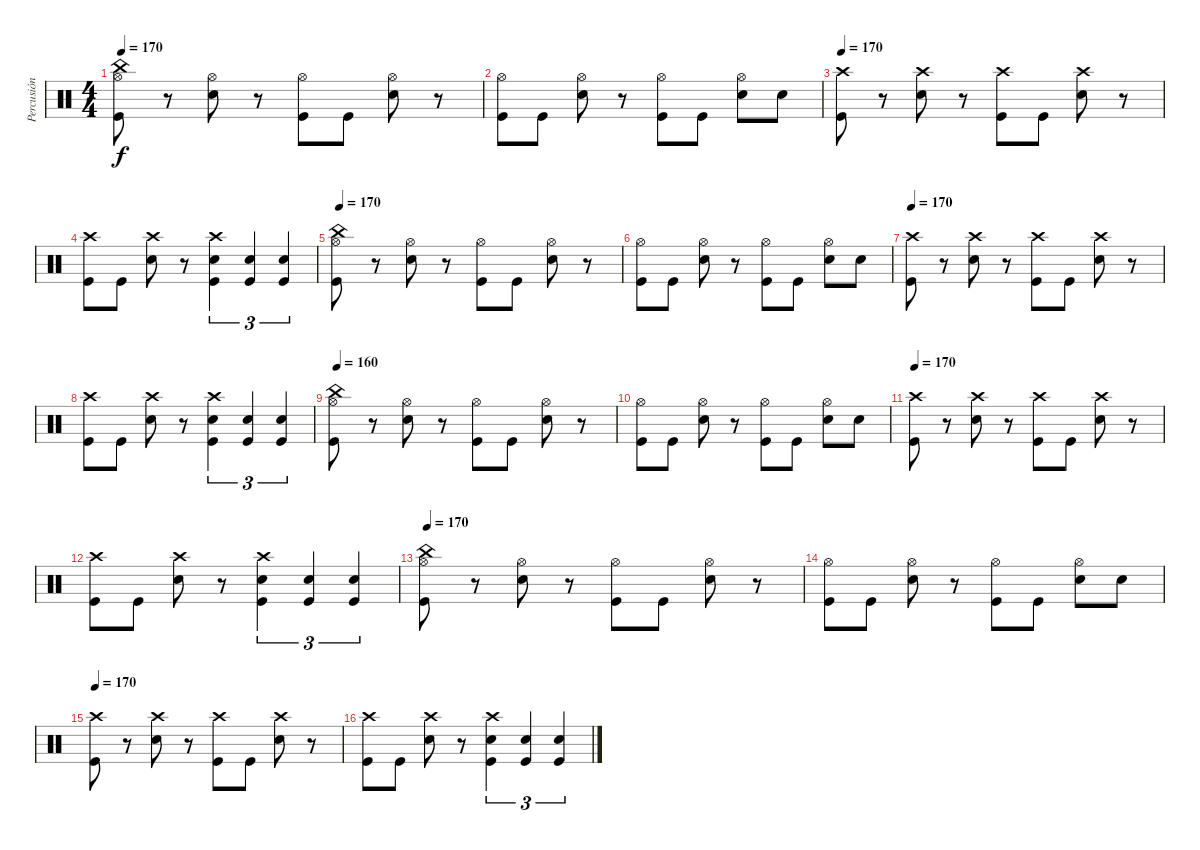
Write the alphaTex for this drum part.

\track ("Percusión  Gabriela" "Percusión ") {instrument percussion}
\staff {score}
\articulation defaults
\ts (4 4)
\tempo 170
\clef neutral
\ks c
("Hi-Hat (open)" "China (hit)" "Kick (hit)").8{dy f} r.8 ("Hi-Hat (open)" "Snare (hit) 2").8 r.8 ("Hi-Hat (open)" "Kick (hit)").8 "Kick (hit)".8 ("Snare (hit) 2" "Hi-Hat (open)").8 r.8 |
("Hi-Hat (open)" "Kick (hit)").8 "Kick (hit)".8 ("Hi-Hat (open)" "Snare (hit) 2").8 r.8 ("Hi-Hat (open)" "Kick (hit)").8 "Kick (hit)".8 ("Hi-Hat (open)" "Snare (hit) 2").8 "Snare (hit) 2".8 |
\tempo 170
("Crash high (hit)" "Kick (hit)").8 r.8 ("Crash high (hit)" "Snare (hit) 2").8 r.8 ("Crash high (hit)" "Kick (hit)").8 "Kick (hit)".8 ("Snare (hit) 2" "Crash high (hit)").8 r.8 |
("Crash high (hit)" "Kick (hit)").8 "Kick (hit)".8 ("Crash high (hit)" "Snare (hit) 2").8 r.8 ("Crash high (hit)" "Snare (hit) 2" "Kick (hit)").4{tu (3 2)} ("Snare (hit) 2" "Kick (hit)").4{tu (3 2)} ("Kick (hit)" "Snare (hit) 2").4{tu (3 2)} |
\tempo 170
("Hi-Hat (open)" "China (hit)" "Kick (hit)").8 r.8 ("Hi-Hat (open)" "Snare (hit) 2").8 r.8 ("Hi-Hat (open)" "Kick (hit)").8 "Kick (hit)".8 ("Snare (hit) 2" "Hi-Hat (open)").8 r.8 |
("Hi-Hat (open)" "Kick (hit)").8 "Kick (hit)".8 ("Hi-Hat (open)" "Snare (hit) 2").8 r.8 ("Hi-Hat (open)" "Kick (hit)").8 "Kick (hit)".8 ("Hi-Hat (open)" "Snare (hit) 2").8 "Snare (hit) 2".8 |
\tempo 170
("Crash high (hit)" "Kick (hit)").8 r.8 ("Crash high (hit)" "Snare (hit) 2").8 r.8 ("Crash high (hit)" "Kick (hit)").8 "Kick (hit)".8 ("Snare (hit) 2" "Crash high (hit)").8 r.8 |
("Crash high (hit)" "Kick (hit)").8 "Kick (hit)".8 ("Crash high (hit)" "Snare (hit) 2").8 r.8 ("Crash high (hit)" "Snare (hit) 2" "Kick (hit)").4{tu (3 2)} ("Snare (hit) 2" "Kick (hit)").4{tu (3 2)} ("Kick (hit)" "Snare (hit) 2").4{tu (3 2)} |
\tempo 160
("Hi-Hat (open)" "China (hit)" "Kick (hit)").8 r.8 ("Hi-Hat (open)" "Snare (hit) 2").8 r.8 ("Hi-Hat (open)" "Kick (hit)").8 "Kick (hit)".8 ("Snare (hit) 2" "Hi-Hat (open)").8 r.8 |
("Hi-Hat (open)" "Kick (hit)").8 "Kick (hit)".8 ("Hi-Hat (open)" "Snare (hit) 2").8 r.8 ("Hi-Hat (open)" "Kick (hit)").8 "Kick (hit)".8 ("Hi-Hat (open)" "Snare (hit) 2").8 "Snare (hit) 2".8 |
\tempo 170
("Crash high (hit)" "Kick (hit)").8 r.8 ("Crash high (hit)" "Snare (hit) 2").8 r.8 ("Crash high (hit)" "Kick (hit)").8 "Kick (hit)".8 ("Snare (hit) 2" "Crash high (hit)").8 r.8 |
("Crash high (hit)" "Kick (hit)").8 "Kick (hit)".8 ("Crash high (hit)" "Snare (hit) 2").8 r.8 ("Crash high (hit)" "Snare (hit) 2" "Kick (hit)").4{tu (3 2)} ("Snare (hit) 2" "Kick (hit)").4{tu (3 2)} ("Kick (hit)" "Snare (hit) 2").4{tu (3 2)} |
\tempo 170
("Hi-Hat (open)" "China (hit)" "Kick (hit)").8 r.8 ("Hi-Hat (open)" "Snare (hit) 2").8 r.8 ("Hi-Hat (open)" "Kick (hit)").8 "Kick (hit)".8 ("Snare (hit) 2" "Hi-Hat (open)").8 r.8 |
("Hi-Hat (open)" "Kick (hit)").8 "Kick (hit)".8 ("Hi-Hat (open)" "Snare (hit) 2").8 r.8 ("Hi-Hat (open)" "Kick (hit)").8 "Kick (hit)".8 ("Hi-Hat (open)" "Snare (hit) 2").8 "Snare (hit) 2".8 |
\tempo 170
("Crash high (hit)" "Kick (hit)").8 r.8 ("Crash high (hit)" "Snare (hit) 2").8 r.8 ("Crash high (hit)" "Kick (hit)").8 "Kick (hit)".8 ("Snare (hit) 2" "Crash high (hit)").8 r.8 |
("Crash high (hit)" "Kick (hit)").8 "Kick (hit)".8 ("Crash high (hit)" "Snare (hit) 2").8 r.8 ("Crash high (hit)" "Snare (hit) 2" "Kick (hit)").4{tu (3 2)} ("Snare (hit) 2" "Kick (hit)").4{tu (3 2)} ("Kick (hit)" "Snare (hit) 2").4{tu (3 2)}
